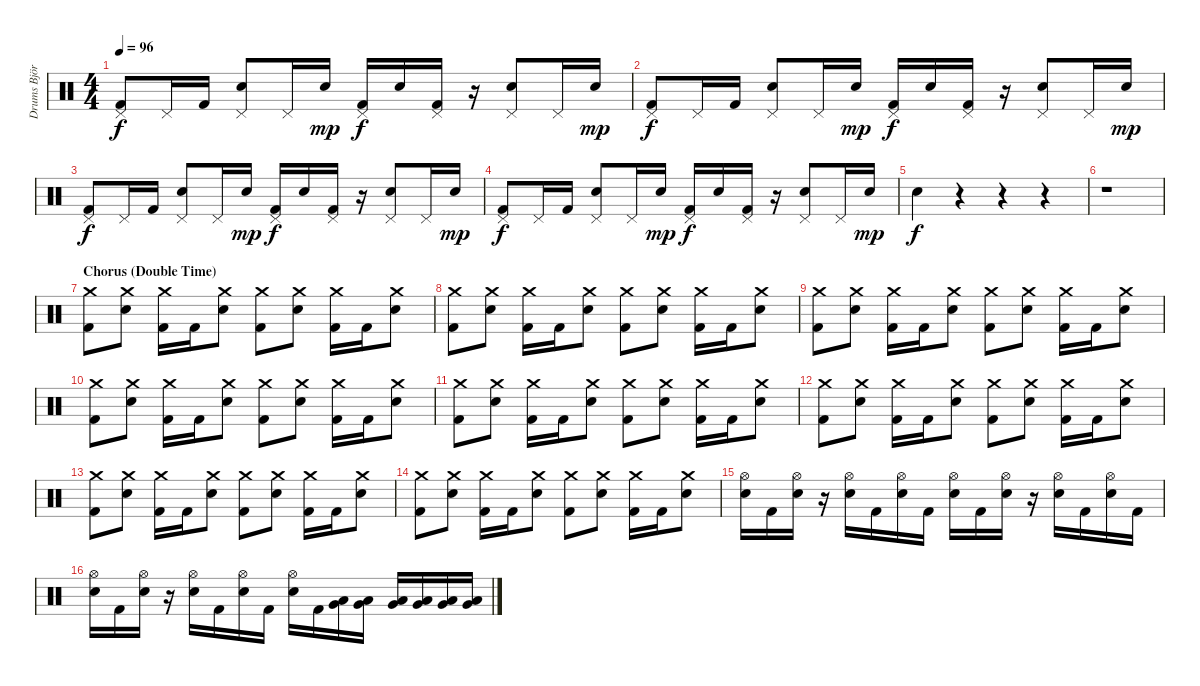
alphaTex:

\track ("Drums Björn Fryklund" "Drums Björ") {instrument percussion}
\staff {score}
\articulation defaults
\ts (4 4)
\tempo 96
\clef neutral
\ks c
("Pedal Hi-Hat (hit)" "Kick (hit) 2").8{dy f} "Pedal Hi-Hat (hit)".16 "Kick (hit) 2".16 ("Pedal Hi-Hat (hit)" "Snare (hit) 2").8 "Pedal Hi-Hat (hit)".16 "Snare (hit) 2"{tr (38 64)}.16{dy mp} ("Pedal Hi-Hat (hit)" "Kick (hit) 2").16{dy f} "Snare (hit) 2".16 ("Pedal Hi-Hat (hit)" "Kick (hit) 2").16 r.16 ("Pedal Hi-Hat (hit)" "Snare (hit) 2").8 "Pedal Hi-Hat (hit)".16 "Snare (hit) 2"{tr (38 64)}.16{dy mp} |
("Pedal Hi-Hat (hit)" "Kick (hit) 2").8{dy f} "Pedal Hi-Hat (hit)".16 "Kick (hit) 2".16 ("Pedal Hi-Hat (hit)" "Snare (hit) 2").8 "Pedal Hi-Hat (hit)".16 "Snare (hit) 2"{tr (38 64)}.16{dy mp} ("Pedal Hi-Hat (hit)" "Kick (hit) 2").16{dy f} "Snare (hit) 2".16 ("Pedal Hi-Hat (hit)" "Kick (hit) 2").16 r.16 ("Pedal Hi-Hat (hit)" "Snare (hit) 2").8 "Pedal Hi-Hat (hit)".16 "Snare (hit) 2"{tr (38 64)}.16{dy mp} |
("Pedal Hi-Hat (hit)" "Kick (hit) 2").8{dy f} "Pedal Hi-Hat (hit)".16 "Kick (hit) 2".16 ("Pedal Hi-Hat (hit)" "Snare (hit) 2").8 "Pedal Hi-Hat (hit)".16 "Snare (hit) 2"{tr (38 64)}.16{dy mp} ("Pedal Hi-Hat (hit)" "Kick (hit) 2").16{dy f} "Snare (hit) 2".16 ("Pedal Hi-Hat (hit)" "Kick (hit) 2").16 r.16 ("Pedal Hi-Hat (hit)" "Snare (hit) 2").8 "Pedal Hi-Hat (hit)".16 "Snare (hit) 2"{tr (38 64)}.16{dy mp} |
("Pedal Hi-Hat (hit)" "Kick (hit) 2").8{dy f} "Pedal Hi-Hat (hit)".16 "Kick (hit) 2".16 ("Pedal Hi-Hat (hit)" "Snare (hit) 2").8 "Pedal Hi-Hat (hit)".16 "Snare (hit) 2"{tr (38 64)}.16{dy mp} ("Pedal Hi-Hat (hit)" "Kick (hit) 2").16{dy f} "Snare (hit) 2".16 ("Pedal Hi-Hat (hit)" "Kick (hit) 2").16 r.16 ("Pedal Hi-Hat (hit)" "Snare (hit) 2").8 "Pedal Hi-Hat (hit)".16 "Snare (hit) 2"{tr (38 64)}.16{dy mp} |
"Snare (hit) 2".4{dy f} r.4 r.4 r.4 |
r.1 |
\section ("" "Chorus (Double Time)")
("Crash medium (hit)" "Kick (hit) 2").8 ("Crash medium (hit)" "Snare (hit) 2").8 ("Crash medium (hit)" "Kick (hit) 2").16 "Kick (hit) 2".16 ("Crash medium (hit)" "Snare (hit) 2").8 ("Crash medium (hit)" "Kick (hit) 2").8 ("Crash medium (hit)" "Snare (hit) 2").8 ("Crash medium (hit)" "Kick (hit) 2").16 "Kick (hit) 2".16 ("Crash medium (hit)" "Snare (hit) 2").8 |
("Crash medium (hit)" "Kick (hit) 2").8 ("Crash medium (hit)" "Snare (hit) 2").8 ("Crash medium (hit)" "Kick (hit) 2").16 "Kick (hit) 2".16 ("Crash medium (hit)" "Snare (hit) 2").8 ("Crash medium (hit)" "Kick (hit) 2").8 ("Crash medium (hit)" "Snare (hit) 2").8 ("Crash medium (hit)" "Kick (hit) 2").16 "Kick (hit) 2".16 ("Crash medium (hit)" "Snare (hit) 2").8 |
("Crash medium (hit)" "Kick (hit) 2").8 ("Crash medium (hit)" "Snare (hit) 2").8 ("Crash medium (hit)" "Kick (hit) 2").16 "Kick (hit) 2".16 ("Crash medium (hit)" "Snare (hit) 2").8 ("Crash medium (hit)" "Kick (hit) 2").8 ("Crash medium (hit)" "Snare (hit) 2").8 ("Crash medium (hit)" "Kick (hit) 2").16 "Kick (hit) 2".16 ("Crash medium (hit)" "Snare (hit) 2").8 |
("Crash medium (hit)" "Kick (hit) 2").8 ("Crash medium (hit)" "Snare (hit) 2").8 ("Crash medium (hit)" "Kick (hit) 2").16 "Kick (hit) 2".16 ("Crash medium (hit)" "Snare (hit) 2").8 ("Crash medium (hit)" "Kick (hit) 2").8 ("Crash medium (hit)" "Snare (hit) 2").8 ("Crash medium (hit)" "Kick (hit) 2").16 "Kick (hit) 2".16 ("Crash medium (hit)" "Snare (hit) 2").8 |
("Crash medium (hit)" "Kick (hit) 2").8 ("Crash medium (hit)" "Snare (hit) 2").8 ("Crash medium (hit)" "Kick (hit) 2").16 "Kick (hit) 2".16 ("Crash medium (hit)" "Snare (hit) 2").8 ("Crash medium (hit)" "Kick (hit) 2").8 ("Crash medium (hit)" "Snare (hit) 2").8 ("Crash medium (hit)" "Kick (hit) 2").16 "Kick (hit) 2".16 ("Crash medium (hit)" "Snare (hit) 2").8 |
("Crash medium (hit)" "Kick (hit) 2").8 ("Crash medium (hit)" "Snare (hit) 2").8 ("Crash medium (hit)" "Kick (hit) 2").16 "Kick (hit) 2".16 ("Crash medium (hit)" "Snare (hit) 2").8 ("Crash medium (hit)" "Kick (hit) 2").8 ("Crash medium (hit)" "Snare (hit) 2").8 ("Crash medium (hit)" "Kick (hit) 2").16 "Kick (hit) 2".16 ("Crash medium (hit)" "Snare (hit) 2").8 |
("Crash medium (hit)" "Kick (hit) 2").8 ("Crash medium (hit)" "Snare (hit) 2").8 ("Crash medium (hit)" "Kick (hit) 2").16 "Kick (hit) 2".16 ("Crash medium (hit)" "Snare (hit) 2").8 ("Crash medium (hit)" "Kick (hit) 2").8 ("Crash medium (hit)" "Snare (hit) 2").8 ("Crash medium (hit)" "Kick (hit) 2").16 "Kick (hit) 2".16 ("Crash medium (hit)" "Snare (hit) 2").8 |
("Crash medium (hit)" "Kick (hit) 2").8 ("Crash medium (hit)" "Snare (hit) 2").8 ("Crash medium (hit)" "Kick (hit) 2").16 "Kick (hit) 2".16 ("Crash medium (hit)" "Snare (hit) 2").8 ("Crash medium (hit)" "Kick (hit) 2").8 ("Crash medium (hit)" "Snare (hit) 2").8 ("Crash medium (hit)" "Kick (hit) 2").16 "Kick (hit) 2".16 ("Crash medium (hit)" "Snare (hit) 2").8 |
("Hi-Hat (open)" "Snare (hit) 2").16 "Kick (hit) 2".16 ("Hi-Hat (open)" "Snare (hit) 2").16 r.16 ("Hi-Hat (open)" "Snare (hit) 2").16 "Kick (hit) 2".16 ("Hi-Hat (open)" "Snare (hit) 2").16 "Kick (hit) 2".16 ("Hi-Hat (open)" "Snare (hit) 2").16 "Kick (hit) 2".16 ("Hi-Hat (open)" "Snare (hit) 2").16 r.16 ("Hi-Hat (open)" "Snare (hit) 2").16 "Kick (hit) 2".16 ("Hi-Hat (open)" "Snare (hit) 2").16 "Kick (hit) 2".16 |
("Hi-Hat (open)" "Snare (hit) 2").16 "Kick (hit) 2".16 ("Hi-Hat (open)" "Snare (hit) 2").16 r.16 ("Hi-Hat (open)" "Snare (hit) 2").16 "Kick (hit) 2".16 ("Hi-Hat (open)" "Snare (hit) 2").16 "Kick (hit) 2".16 ("Hi-Hat (open)" "Snare (hit) 2").16 "Kick (hit) 2".16 ("Low Tom (hit)" "Very Low Tom (hit)").16 ("Low Tom (hit)" "Very Low Tom (hit)").16 ("Low Tom (hit)" "Very Low Tom (hit)").16 ("Low Tom (hit)" "Very Low Tom (hit)").16 ("Low Tom (hit)" "Very Low Tom (hit)").16 ("Low Tom (hit)" "Very Low Tom (hit)").16
